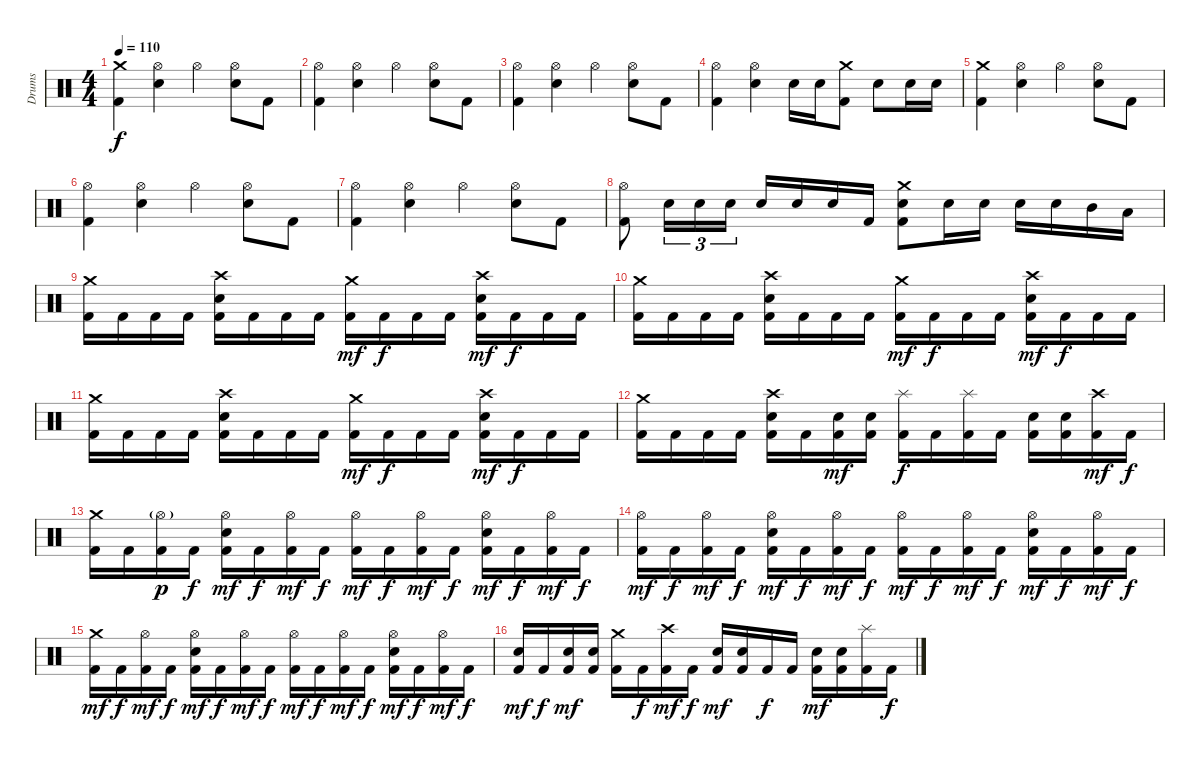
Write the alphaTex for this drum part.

\track ("Drums" "Drums") {instrument percussion}
\staff {score}
\articulation defaults
\ts (4 4)
\tempo 110
\clef neutral
\ks c
("Crash medium (hit)" "Kick (hit) 2").4{dy f} ("Hi-Hat (open)" "Electric Snare (hit)").4 "Hi-Hat (open)".4 ("Hi-Hat (open)" "Electric Snare (hit)").8 "Kick (hit) 2".8 |
("Hi-Hat (open)" "Kick (hit) 2").4 ("Hi-Hat (open)" "Electric Snare (hit)").4 "Hi-Hat (open)".4 ("Hi-Hat (open)" "Electric Snare (hit)").8 "Kick (hit) 2".8 |
("Hi-Hat (open)" "Kick (hit) 2").4 ("Hi-Hat (open)" "Electric Snare (hit)").4 "Hi-Hat (open)".4 ("Hi-Hat (open)" "Electric Snare (hit)").8 "Kick (hit) 2".8 |
("Hi-Hat (open)" "Kick (hit) 2").4 ("Hi-Hat (open)" "Electric Snare (hit)").4 "Electric Snare (hit)".16 "Electric Snare (hit)".16 ("Crash medium (hit)" "Kick (hit) 2").8 "Electric Snare (hit)".8 "Electric Snare (hit)".16 "Electric Snare (hit)".16 |
("Crash medium (hit)" "Kick (hit) 2").4 ("Hi-Hat (open)" "Electric Snare (hit)").4 "Hi-Hat (open)".4 ("Hi-Hat (open)" "Electric Snare (hit)").8 "Kick (hit) 2".8 |
("Hi-Hat (open)" "Kick (hit) 2").4 ("Hi-Hat (open)" "Electric Snare (hit)").4 "Hi-Hat (open)".4 ("Hi-Hat (open)" "Electric Snare (hit)").8 "Kick (hit) 2".8 |
("Hi-Hat (open)" "Kick (hit) 2").4 ("Hi-Hat (open)" "Electric Snare (hit)").4 "Hi-Hat (open)".4 ("Hi-Hat (open)" "Electric Snare (hit)").8 "Kick (hit) 2".8 |
("Hi-Hat (open)" "Kick (hit) 2").8 "Electric Snare (hit)".16{tu (3 2)} "Electric Snare (hit)".16{tu (3 2)} "Electric Snare (hit)".16{tu (3 2)} "Electric Snare (hit)".16 "Electric Snare (hit)".16 "Electric Snare (hit)".16 "Kick (hit) 2".16 ("Crash medium (hit)" "Electric Snare (hit)" "Kick (hit) 2").8 "Electric Snare (hit)".16 "Electric Snare (hit)".16 "Electric Snare (hit)".16 "Electric Snare (hit)".16 "Mid Tom (hit)".16 "Low Tom (hit)".16 |
("Crash medium (hit)" "Kick (hit) 2").16 "Kick (hit) 2".16 "Kick (hit) 2".16 "Kick (hit) 2".16 ("Crash high (hit)" "Electric Snare (hit)" "Kick (hit) 2").16 "Kick (hit) 2".16 "Kick (hit) 2".16 "Kick (hit) 2".16 ("Crash medium (hit)" "Kick (hit) 2").16{dy mf} "Kick (hit) 2".16{dy f} "Kick (hit) 2".16 "Kick (hit) 2".16 ("Crash high (hit)" "Electric Snare (hit)" "Kick (hit) 2").16{dy mf} "Kick (hit) 2".16{dy f} "Kick (hit) 2".16 "Kick (hit) 2".16 |
("Crash medium (hit)" "Kick (hit) 2").16 "Kick (hit) 2".16 "Kick (hit) 2".16 "Kick (hit) 2".16 ("Crash high (hit)" "Electric Snare (hit)" "Kick (hit) 2").16 "Kick (hit) 2".16 "Kick (hit) 2".16 "Kick (hit) 2".16 ("Crash medium (hit)" "Kick (hit) 2").16{dy mf} "Kick (hit) 2".16{dy f} "Kick (hit) 2".16 "Kick (hit) 2".16 ("Crash high (hit)" "Electric Snare (hit)" "Kick (hit) 2").16{dy mf} "Kick (hit) 2".16{dy f} "Kick (hit) 2".16 "Kick (hit) 2".16 |
("Crash medium (hit)" "Kick (hit) 2").16 "Kick (hit) 2".16 "Kick (hit) 2".16 "Kick (hit) 2".16 ("Crash high (hit)" "Electric Snare (hit)" "Kick (hit) 2").16 "Kick (hit) 2".16 "Kick (hit) 2".16 "Kick (hit) 2".16 ("Crash medium (hit)" "Kick (hit) 2").16{dy mf} "Kick (hit) 2".16{dy f} "Kick (hit) 2".16 "Kick (hit) 2".16 ("Crash high (hit)" "Electric Snare (hit)" "Kick (hit) 2").16{dy mf} "Kick (hit) 2".16{dy f} "Kick (hit) 2".16 "Kick (hit) 2".16 |
("Crash medium (hit)" "Kick (hit) 2").16 "Kick (hit) 2".16 "Kick (hit) 2".16 "Kick (hit) 2".16 ("Crash high (hit)" "Electric Snare (hit)" "Kick (hit) 2").16 "Kick (hit) 2".16 ("Electric Snare (hit)" "Kick (hit) 2").16{dy mf} ("Electric Snare (hit)" "Kick (hit) 2").16 ("Splash (hit)" "Kick (hit) 2").16{dy f} "Kick (hit) 2".16 ("Splash (hit)" "Kick (hit) 2").16 "Kick (hit) 2".16 ("Electric Snare (hit)" "Kick (hit) 2").16 ("Electric Snare (hit)" "Kick (hit) 2").16 ("Crash high (hit)" "Kick (hit) 2").16{dy mf} "Kick (hit) 2".16{dy f} |
("Crash medium (hit)" "Kick (hit) 2").16 "Kick (hit) 2".16 ("Hi-Hat (open)"{g} "Kick (hit) 2").16{dy p} "Kick (hit) 2".16{dy f} ("Hi-Hat (open)" "Electric Snare (hit)" "Kick (hit) 2").16{dy mf} "Kick (hit) 2".16{dy f} ("Hi-Hat (open)" "Kick (hit) 2").16{dy mf} "Kick (hit) 2".16{dy f} ("Hi-Hat (open)" "Kick (hit) 2").16{dy mf} "Kick (hit) 2".16{dy f} ("Hi-Hat (open)" "Kick (hit) 2").16{dy mf} "Kick (hit) 2".16{dy f} ("Hi-Hat (open)" "Electric Snare (hit)" "Kick (hit) 2").16{dy mf} "Kick (hit) 2".16{dy f} ("Hi-Hat (open)" "Kick (hit) 2").16{dy mf} "Kick (hit) 2".16{dy f} |
("Hi-Hat (open)" "Kick (hit) 2").16{dy mf} "Kick (hit) 2".16{dy f} ("Hi-Hat (open)" "Kick (hit) 2").16{dy mf} "Kick (hit) 2".16{dy f} ("Hi-Hat (open)" "Electric Snare (hit)" "Kick (hit) 2").16{dy mf} "Kick (hit) 2".16{dy f} ("Hi-Hat (open)" "Kick (hit) 2").16{dy mf} "Kick (hit) 2".16{dy f} ("Hi-Hat (open)" "Kick (hit) 2").16{dy mf} "Kick (hit) 2".16{dy f} ("Hi-Hat (open)" "Kick (hit) 2").16{dy mf} "Kick (hit) 2".16{dy f} ("Hi-Hat (open)" "Electric Snare (hit)" "Kick (hit) 2").16{dy mf} "Kick (hit) 2".16{dy f} ("Hi-Hat (open)" "Kick (hit) 2").16{dy mf} "Kick (hit) 2".16{dy f} |
("Crash medium (hit)" "Kick (hit) 2").16{dy mf} "Kick (hit) 2".16{dy f} ("Hi-Hat (open)" "Kick (hit) 2").16{dy mf} "Kick (hit) 2".16{dy f} ("Hi-Hat (open)" "Electric Snare (hit)" "Kick (hit) 2").16{dy mf} "Kick (hit) 2".16{dy f} ("Hi-Hat (open)" "Kick (hit) 2").16{dy mf} "Kick (hit) 2".16{dy f} ("Hi-Hat (open)" "Kick (hit) 2").16{dy mf} "Kick (hit) 2".16{dy f} ("Hi-Hat (open)" "Kick (hit) 2").16{dy mf} "Kick (hit) 2".16{dy f} ("Hi-Hat (open)" "Electric Snare (hit)" "Kick (hit) 2").16{dy mf} "Kick (hit) 2".16{dy f} ("Hi-Hat (open)" "Kick (hit) 2").16{dy mf} "Kick (hit) 2".16{dy f} |
("Electric Snare (hit)" "Kick (hit) 2").16{dy mf} "Kick (hit) 2".16{dy f} ("Electric Snare (hit)" "Kick (hit) 2").16{dy mf} ("Electric Snare (hit)" "Kick (hit) 2").16 ("Crash medium (hit)" "Kick (hit) 2").16 "Kick (hit) 2".16{dy f} ("Crash high (hit)" "Kick (hit) 2").16{dy mf} "Kick (hit) 2".16{dy f} ("Electric Snare (hit)" "Kick (hit) 2").16{dy mf} ("Electric Snare (hit)" "Kick (hit) 2").16 "Kick (hit) 2".16{dy f} "Kick (hit) 2".16 ("Electric Snare (hit)" "Kick (hit) 2").16{dy mf} ("Electric Snare (hit)" "Kick (hit) 2").16 ("Splash (hit)" "Kick (hit) 2").16 "Kick (hit) 2".16{dy f}
